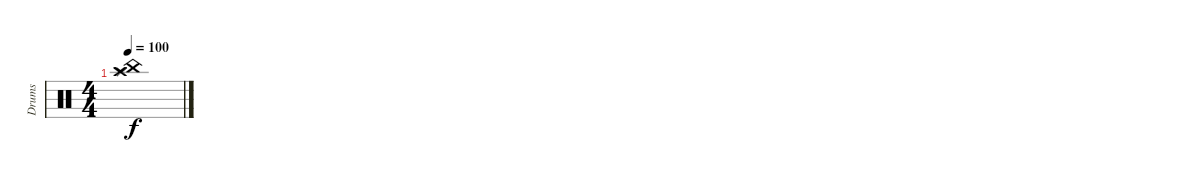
\track ("Drums" "Drums") {instrument percussion}
\staff {score}
\articulation defaults
\ts (4 4)
\tempo 100
\clef neutral
\ks c
("China (hit)" "Splash (hit)" "Crash high (hit)").1{dy f}
